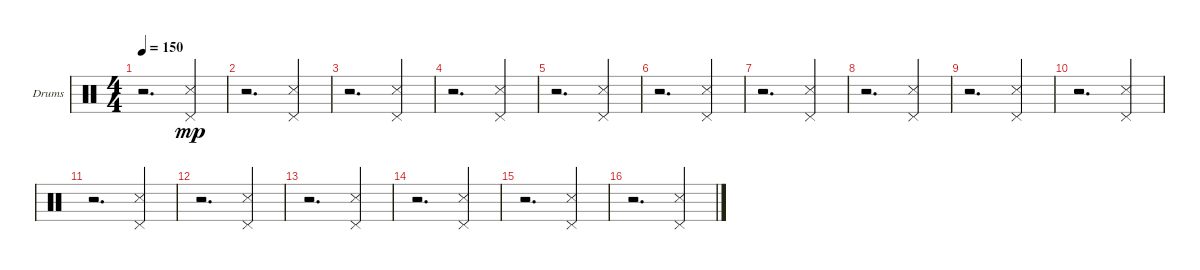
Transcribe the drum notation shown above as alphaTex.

\defaultSystemsLayout 4
\bracketExtendMode groupsimilarinstruments
\firstSystemTrackNameOrientation horizontal
\otherSystemsTrackNameOrientation horizontal
\track ("Drums" "Drums") {instrument percussion}
\staff {score}
\articulation defaults
\ts (4 4)
\tempo 150
\clef neutral
\ks c
r.2{d dy mp} ("Snare (side stick) 3" "Pedal Hi-Hat (hit)").4 |
r.2{d} ("Snare (side stick) 3" "Pedal Hi-Hat (hit)").4 |
r.2{d} ("Snare (side stick) 3" "Pedal Hi-Hat (hit)").4 |
r.2{d} ("Snare (side stick) 3" "Pedal Hi-Hat (hit)").4 |
r.2{d} ("Snare (side stick) 3" "Pedal Hi-Hat (hit)").4 |
r.2{d} ("Snare (side stick) 3" "Pedal Hi-Hat (hit)").4 |
r.2{d} ("Snare (side stick) 3" "Pedal Hi-Hat (hit)").4 |
r.2{d} ("Snare (side stick) 3" "Pedal Hi-Hat (hit)").4 |
r.2{d} ("Snare (side stick) 3" "Pedal Hi-Hat (hit)").4 |
r.2{d} ("Snare (side stick) 3" "Pedal Hi-Hat (hit)").4 |
r.2{d} ("Snare (side stick) 3" "Pedal Hi-Hat (hit)").4 |
r.2{d} ("Snare (side stick) 3" "Pedal Hi-Hat (hit)").4 |
r.2{d} ("Snare (side stick) 3" "Pedal Hi-Hat (hit)").4 |
r.2{d} ("Snare (side stick) 3" "Pedal Hi-Hat (hit)").4 |
r.2{d} ("Snare (side stick) 3" "Pedal Hi-Hat (hit)").4 |
r.2{d} ("Snare (side stick) 3" "Pedal Hi-Hat (hit)").4
